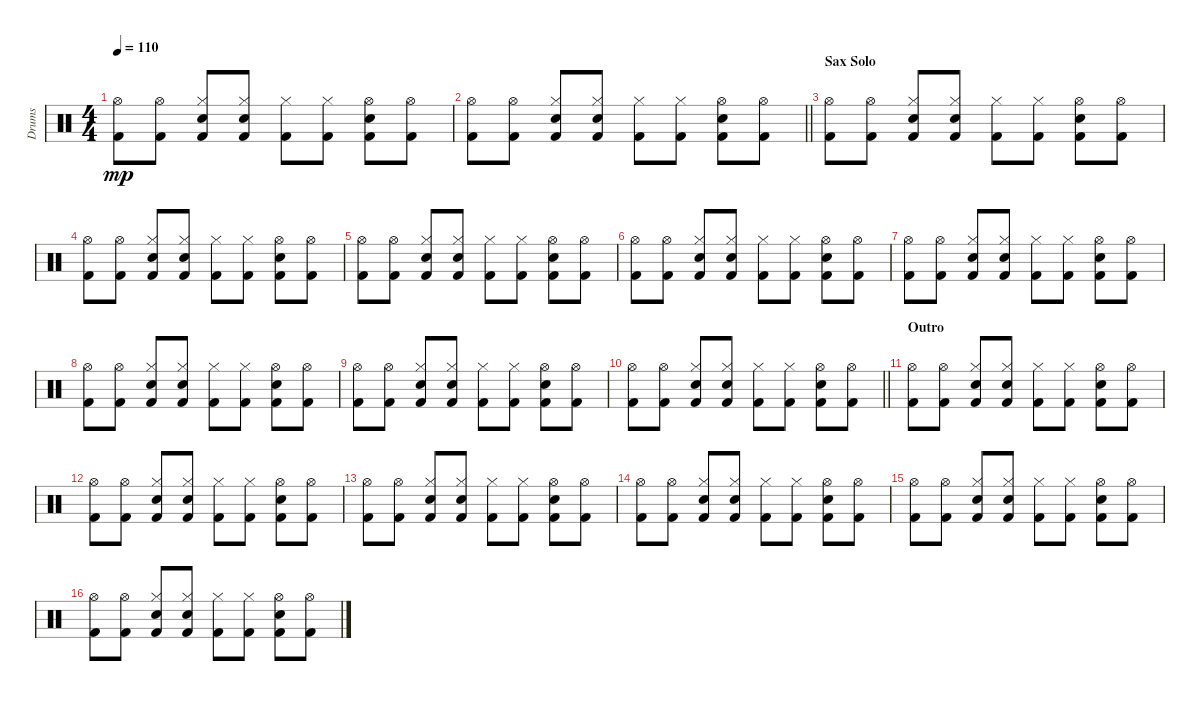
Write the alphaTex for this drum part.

\track ("Drums" "Drums") {instrument percussion}
\staff {score}
\articulation defaults
\ts (4 4)
\tempo 110
\clef neutral
\ks c
("Hi-Hat (open)" "Kick (hit) 2").8{dy mp} ("Hi-Hat (open)" "Kick (hit) 2").8 ("Hi-Hat (closed)" "Electric Snare (hit)" "Kick (hit) 2").8 ("Hi-Hat (closed)" "Electric Snare (hit)" "Kick (hit) 2").8 ("Hi-Hat (closed)" "Kick (hit) 2").8 ("Hi-Hat (closed)" "Kick (hit) 2").8 ("Hi-Hat (open)" "Electric Snare (hit)" "Kick (hit) 2").8 ("Hi-Hat (open)" "Kick (hit) 2").8 |
\barLineRight lightlight
("Hi-Hat (open)" "Kick (hit) 2").8 ("Hi-Hat (open)" "Kick (hit) 2").8 ("Hi-Hat (closed)" "Electric Snare (hit)" "Kick (hit) 2").8 ("Hi-Hat (closed)" "Electric Snare (hit)" "Kick (hit) 2").8 ("Hi-Hat (closed)" "Kick (hit) 2").8 ("Hi-Hat (closed)" "Kick (hit) 2").8 ("Hi-Hat (open)" "Electric Snare (hit)" "Kick (hit) 2").8 ("Hi-Hat (open)" "Kick (hit) 2").8 |
\section ("" "Sax Solo")
("Hi-Hat (open)" "Kick (hit) 2").8 ("Hi-Hat (open)" "Kick (hit) 2").8 ("Hi-Hat (closed)" "Electric Snare (hit)" "Kick (hit) 2").8 ("Hi-Hat (closed)" "Electric Snare (hit)" "Kick (hit) 2").8 ("Hi-Hat (closed)" "Kick (hit) 2").8 ("Hi-Hat (closed)" "Kick (hit) 2").8 ("Hi-Hat (open)" "Electric Snare (hit)" "Kick (hit) 2").8 ("Hi-Hat (open)" "Kick (hit) 2").8 |
("Hi-Hat (open)" "Kick (hit) 2").8 ("Hi-Hat (open)" "Kick (hit) 2").8 ("Hi-Hat (closed)" "Electric Snare (hit)" "Kick (hit) 2").8 ("Hi-Hat (closed)" "Electric Snare (hit)" "Kick (hit) 2").8 ("Hi-Hat (closed)" "Kick (hit) 2").8 ("Hi-Hat (closed)" "Kick (hit) 2").8 ("Hi-Hat (open)" "Electric Snare (hit)" "Kick (hit) 2").8 ("Hi-Hat (open)" "Kick (hit) 2").8 |
("Hi-Hat (open)" "Kick (hit) 2").8 ("Hi-Hat (open)" "Kick (hit) 2").8 ("Hi-Hat (closed)" "Electric Snare (hit)" "Kick (hit) 2").8 ("Hi-Hat (closed)" "Electric Snare (hit)" "Kick (hit) 2").8 ("Hi-Hat (closed)" "Kick (hit) 2").8 ("Hi-Hat (closed)" "Kick (hit) 2").8 ("Hi-Hat (open)" "Electric Snare (hit)" "Kick (hit) 2").8 ("Hi-Hat (open)" "Kick (hit) 2").8 |
("Hi-Hat (open)" "Kick (hit) 2").8 ("Hi-Hat (open)" "Kick (hit) 2").8 ("Hi-Hat (closed)" "Electric Snare (hit)" "Kick (hit) 2").8 ("Hi-Hat (closed)" "Electric Snare (hit)" "Kick (hit) 2").8 ("Hi-Hat (closed)" "Kick (hit) 2").8 ("Hi-Hat (closed)" "Kick (hit) 2").8 ("Hi-Hat (open)" "Electric Snare (hit)" "Kick (hit) 2").8 ("Hi-Hat (open)" "Kick (hit) 2").8 |
("Hi-Hat (open)" "Kick (hit) 2").8 ("Hi-Hat (open)" "Kick (hit) 2").8 ("Hi-Hat (closed)" "Electric Snare (hit)" "Kick (hit) 2").8 ("Hi-Hat (closed)" "Electric Snare (hit)" "Kick (hit) 2").8 ("Hi-Hat (closed)" "Kick (hit) 2").8 ("Hi-Hat (closed)" "Kick (hit) 2").8 ("Hi-Hat (open)" "Electric Snare (hit)" "Kick (hit) 2").8 ("Hi-Hat (open)" "Kick (hit) 2").8 |
("Hi-Hat (open)" "Kick (hit) 2").8 ("Hi-Hat (open)" "Kick (hit) 2").8 ("Hi-Hat (closed)" "Electric Snare (hit)" "Kick (hit) 2").8 ("Hi-Hat (closed)" "Electric Snare (hit)" "Kick (hit) 2").8 ("Hi-Hat (closed)" "Kick (hit) 2").8 ("Hi-Hat (closed)" "Kick (hit) 2").8 ("Hi-Hat (open)" "Electric Snare (hit)" "Kick (hit) 2").8 ("Hi-Hat (open)" "Kick (hit) 2").8 |
("Hi-Hat (open)" "Kick (hit) 2").8 ("Hi-Hat (open)" "Kick (hit) 2").8 ("Hi-Hat (closed)" "Electric Snare (hit)" "Kick (hit) 2").8 ("Hi-Hat (closed)" "Electric Snare (hit)" "Kick (hit) 2").8 ("Hi-Hat (closed)" "Kick (hit) 2").8 ("Hi-Hat (closed)" "Kick (hit) 2").8 ("Hi-Hat (open)" "Electric Snare (hit)" "Kick (hit) 2").8 ("Hi-Hat (open)" "Kick (hit) 2").8 |
\barLineRight lightlight
("Hi-Hat (open)" "Kick (hit) 2").8 ("Hi-Hat (open)" "Kick (hit) 2").8 ("Hi-Hat (closed)" "Electric Snare (hit)" "Kick (hit) 2").8 ("Hi-Hat (closed)" "Electric Snare (hit)" "Kick (hit) 2").8 ("Hi-Hat (closed)" "Kick (hit) 2").8 ("Hi-Hat (closed)" "Kick (hit) 2").8 ("Hi-Hat (open)" "Electric Snare (hit)" "Kick (hit) 2").8 ("Hi-Hat (open)" "Kick (hit) 2").8 |
\section ("" "Outro")
("Hi-Hat (open)" "Kick (hit) 2").8 ("Hi-Hat (open)" "Kick (hit) 2").8 ("Hi-Hat (closed)" "Electric Snare (hit)" "Kick (hit) 2").8 ("Hi-Hat (closed)" "Electric Snare (hit)" "Kick (hit) 2").8 ("Hi-Hat (closed)" "Kick (hit) 2").8 ("Hi-Hat (closed)" "Kick (hit) 2").8 ("Hi-Hat (open)" "Electric Snare (hit)" "Kick (hit) 2").8 ("Hi-Hat (open)" "Kick (hit) 2").8 |
("Hi-Hat (open)" "Kick (hit) 2").8 ("Hi-Hat (open)" "Kick (hit) 2").8 ("Hi-Hat (closed)" "Electric Snare (hit)" "Kick (hit) 2").8 ("Hi-Hat (closed)" "Electric Snare (hit)" "Kick (hit) 2").8 ("Hi-Hat (closed)" "Kick (hit) 2").8 ("Hi-Hat (closed)" "Kick (hit) 2").8 ("Hi-Hat (open)" "Electric Snare (hit)" "Kick (hit) 2").8 ("Hi-Hat (open)" "Kick (hit) 2").8 |
("Hi-Hat (open)" "Kick (hit) 2").8 ("Hi-Hat (open)" "Kick (hit) 2").8 ("Hi-Hat (closed)" "Electric Snare (hit)" "Kick (hit) 2").8 ("Hi-Hat (closed)" "Electric Snare (hit)" "Kick (hit) 2").8 ("Hi-Hat (closed)" "Kick (hit) 2").8 ("Hi-Hat (closed)" "Kick (hit) 2").8 ("Hi-Hat (open)" "Electric Snare (hit)" "Kick (hit) 2").8 ("Hi-Hat (open)" "Kick (hit) 2").8 |
("Hi-Hat (open)" "Kick (hit) 2").8 ("Hi-Hat (open)" "Kick (hit) 2").8 ("Hi-Hat (closed)" "Electric Snare (hit)" "Kick (hit) 2").8 ("Hi-Hat (closed)" "Electric Snare (hit)" "Kick (hit) 2").8 ("Hi-Hat (closed)" "Kick (hit) 2").8 ("Hi-Hat (closed)" "Kick (hit) 2").8 ("Hi-Hat (open)" "Electric Snare (hit)" "Kick (hit) 2").8 ("Hi-Hat (open)" "Kick (hit) 2").8 |
("Hi-Hat (open)" "Kick (hit) 2").8 ("Hi-Hat (open)" "Kick (hit) 2").8 ("Hi-Hat (closed)" "Electric Snare (hit)" "Kick (hit) 2").8 ("Hi-Hat (closed)" "Electric Snare (hit)" "Kick (hit) 2").8 ("Hi-Hat (closed)" "Kick (hit) 2").8 ("Hi-Hat (closed)" "Kick (hit) 2").8 ("Hi-Hat (open)" "Electric Snare (hit)" "Kick (hit) 2").8 ("Hi-Hat (open)" "Kick (hit) 2").8 |
("Hi-Hat (open)" "Kick (hit) 2").8 ("Hi-Hat (open)" "Kick (hit) 2").8 ("Hi-Hat (closed)" "Electric Snare (hit)" "Kick (hit) 2").8 ("Hi-Hat (closed)" "Electric Snare (hit)" "Kick (hit) 2").8 ("Hi-Hat (closed)" "Kick (hit) 2").8 ("Hi-Hat (closed)" "Kick (hit) 2").8 ("Hi-Hat (open)" "Electric Snare (hit)" "Kick (hit) 2").8 ("Hi-Hat (open)" "Kick (hit) 2").8
